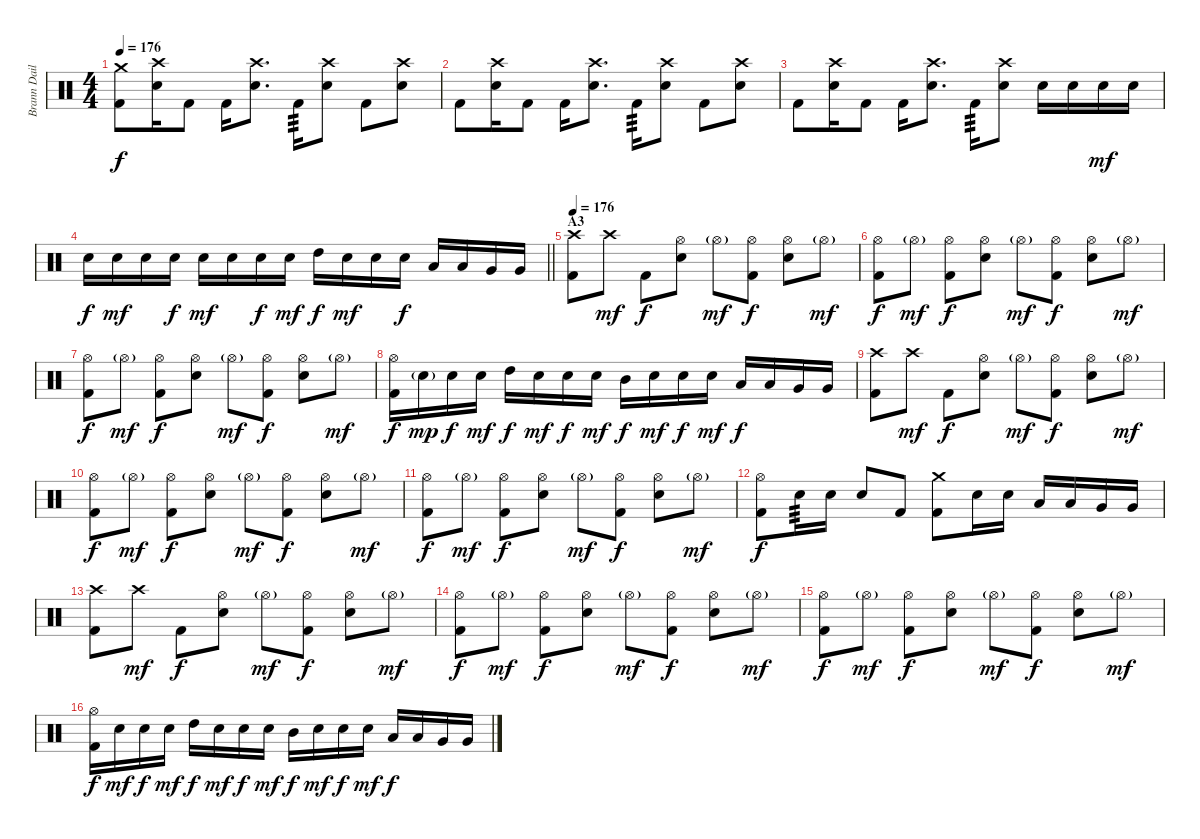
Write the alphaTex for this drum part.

\track ("Brann Dailor" "Brann Dail") {instrument percussion}
\staff {score}
\articulation defaults
\ts (4 4)
\tempo 176
\clef neutral
\ks c
("Crash medium (hit)" "Kick (hit) 2").8{dy f} ("Crash high (hit)" "Snare (hit) 2").16 "Kick (hit) 2".8 "Kick (hit) 2".16 ("Crash high (hit)" "Snare (hit) 2").8{d} "Kick (hit) 2".16{tp 3} ("Crash high (hit)" "Snare (hit) 2").8 "Kick (hit) 2".8 ("Crash high (hit)" "Snare (hit) 2").8 |
"Kick (hit) 2".8 ("Crash high (hit)" "Snare (hit) 2").16 "Kick (hit) 2".8 "Kick (hit) 2".16 ("Crash high (hit)" "Snare (hit) 2").8{d} "Kick (hit) 2".16{tp 3} ("Crash high (hit)" "Snare (hit) 2").8 "Kick (hit) 2".8 ("Crash high (hit)" "Snare (hit) 2").8 |
"Kick (hit) 2".8 ("Crash high (hit)" "Snare (hit) 2").16 "Kick (hit) 2".8 "Kick (hit) 2".16 ("Crash high (hit)" "Snare (hit) 2").8{d} "Kick (hit) 2".16{tp 3} ("Crash high (hit)" "Snare (hit) 2").8 "Snare (hit) 2".16 "Snare (hit) 2".16 "Snare (hit) 2".16{dy mf} "Snare (hit) 2".16 |
\barLineRight lightlight "Snare (hit) 2".16{dy f} "Snare (hit) 2".16{dy mf} "Snare (hit) 2".16 "Snare (hit) 2".16{dy f} "Snare (hit) 2".16{dy mf} "Snare (hit) 2".16 "Snare (hit) 2".16{dy f} "Snare (hit) 2".16{dy mf} "High Tom (hit)".16{dy f} "Snare (hit) 2".16{dy mf} "Snare (hit) 2".16 "Snare (hit) 2".16{dy f} "Low Tom (hit)".16 "Low Tom (hit)".16 "Very Low Tom (hit)".16 "Very Low Tom (hit)".16
|
\section ("" "A3")
\tempo 176
("Crash high (hit)" "Kick (hit) 2").8 "Crash high (hit)".8{dy mf} "Kick (hit) 2".8{dy f} ("Hi-Hat (open)" "Snare (hit) 2").8 "Hi-Hat (open)"{g}.8{dy mf} ("Hi-Hat (open)" "Kick (hit) 2").8{dy f} ("Hi-Hat (open)" "Snare (hit) 2").8 "Hi-Hat (open)"{g}.8{dy mf} |
("Hi-Hat (open)" "Kick (hit) 2").8{dy f} "Hi-Hat (open)"{g}.8{dy mf} ("Hi-Hat (open)" "Kick (hit) 2").8{dy f} ("Hi-Hat (open)" "Snare (hit) 2").8 "Hi-Hat (open)"{g}.8{dy mf} ("Hi-Hat (open)" "Kick (hit) 2").8{dy f} ("Hi-Hat (open)" "Snare (hit) 2").8 "Hi-Hat (open)"{g}.8{dy mf} |
("Hi-Hat (open)" "Kick (hit) 2").8{dy f} "Hi-Hat (open)"{g}.8{dy mf} ("Hi-Hat (open)" "Kick (hit) 2").8{dy f} ("Hi-Hat (open)" "Snare (hit) 2").8 "Hi-Hat (open)"{g}.8{dy mf} ("Hi-Hat (open)" "Kick (hit) 2").8{dy f} ("Hi-Hat (open)" "Snare (hit) 2").8 "Hi-Hat (open)"{g}.8{dy mf} |
("Hi-Hat (open)" "Kick (hit) 2").16{dy f} "Snare (hit) 2"{g}.16{dy mp} "Snare (hit) 2".16{dy f} "Snare (hit) 2".16{dy mf} "High Tom (hit)".16{dy f} "Snare (hit) 2".16{dy mf} "Snare (hit) 2".16{dy f} "Snare (hit) 2".16{dy mf} "Mid Tom (hit)".16{dy f} "Snare (hit) 2".16{dy mf} "Snare (hit) 2".16{dy f} "Snare (hit) 2".16{dy mf} "Low Tom (hit)".16{dy f} "Low Tom (hit)".16 "Very Low Tom (hit)".16 "Very Low Tom (hit)".16 |
("Crash high (hit)" "Kick (hit) 2").8 "Crash high (hit)".8{dy mf} "Kick (hit) 2".8{dy f} ("Hi-Hat (open)" "Snare (hit) 2").8 "Hi-Hat (open)"{g}.8{dy mf} ("Hi-Hat (open)" "Kick (hit) 2").8{dy f} ("Hi-Hat (open)" "Snare (hit) 2").8 "Hi-Hat (open)"{g}.8{dy mf} |
("Hi-Hat (open)" "Kick (hit) 2").8{dy f} "Hi-Hat (open)"{g}.8{dy mf} ("Hi-Hat (open)" "Kick (hit) 2").8{dy f} ("Hi-Hat (open)" "Snare (hit) 2").8 "Hi-Hat (open)"{g}.8{dy mf} ("Hi-Hat (open)" "Kick (hit) 2").8{dy f} ("Hi-Hat (open)" "Snare (hit) 2").8 "Hi-Hat (open)"{g}.8{dy mf} |
("Hi-Hat (open)" "Kick (hit) 2").8{dy f} "Hi-Hat (open)"{g}.8{dy mf} ("Hi-Hat (open)" "Kick (hit) 2").8{dy f} ("Hi-Hat (open)" "Snare (hit) 2").8 "Hi-Hat (open)"{g}.8{dy mf} ("Hi-Hat (open)" "Kick (hit) 2").8{dy f} ("Hi-Hat (open)" "Snare (hit) 2").8 "Hi-Hat (open)"{g}.8{dy mf} |
("Hi-Hat (open)" "Kick (hit) 2").8{dy f} "Snare (hit) 2".16{tp 3} "Snare (hit) 2".16 "Snare (hit) 2".8 "Kick (hit) 2".8 ("Crash medium (hit)" "Kick (hit) 2").8 "Snare (hit) 2".16 "Snare (hit) 2".16 "Low Tom (hit)".16 "Low Tom (hit)".16 "Very Low Tom (hit)".16 "Very Low Tom (hit)".16 |
("Crash high (hit)" "Kick (hit) 2").8 "Crash high (hit)".8{dy mf} "Kick (hit) 2".8{dy f} ("Hi-Hat (open)" "Snare (hit) 2").8 "Hi-Hat (open)"{g}.8{dy mf} ("Hi-Hat (open)" "Kick (hit) 2").8{dy f} ("Hi-Hat (open)" "Snare (hit) 2").8 "Hi-Hat (open)"{g}.8{dy mf} |
("Hi-Hat (open)" "Kick (hit) 2").8{dy f} "Hi-Hat (open)"{g}.8{dy mf} ("Hi-Hat (open)" "Kick (hit) 2").8{dy f} ("Hi-Hat (open)" "Snare (hit) 2").8 "Hi-Hat (open)"{g}.8{dy mf} ("Hi-Hat (open)" "Kick (hit) 2").8{dy f} ("Hi-Hat (open)" "Snare (hit) 2").8 "Hi-Hat (open)"{g}.8{dy mf} |
("Hi-Hat (open)" "Kick (hit) 2").8{dy f} "Hi-Hat (open)"{g}.8{dy mf} ("Hi-Hat (open)" "Kick (hit) 2").8{dy f} ("Hi-Hat (open)" "Snare (hit) 2").8 "Hi-Hat (open)"{g}.8{dy mf} ("Hi-Hat (open)" "Kick (hit) 2").8{dy f} ("Hi-Hat (open)" "Snare (hit) 2").8 "Hi-Hat (open)"{g}.8{dy mf} |
("Hi-Hat (open)" "Kick (hit) 2").16{dy f} "Snare (hit) 2".16{dy mf} "Snare (hit) 2".16{dy f} "Snare (hit) 2".16{dy mf} "High Tom (hit)".16{dy f} "Snare (hit) 2".16{dy mf} "Snare (hit) 2".16{dy f} "Snare (hit) 2".16{dy mf} "Mid Tom (hit)".16{dy f} "Snare (hit) 2".16{dy mf} "Snare (hit) 2".16{dy f} "Snare (hit) 2".16{dy mf} "Low Tom (hit)".16{dy f} "Low Tom (hit)".16 "Very Low Tom (hit)".16 "Very Low Tom (hit)".16
